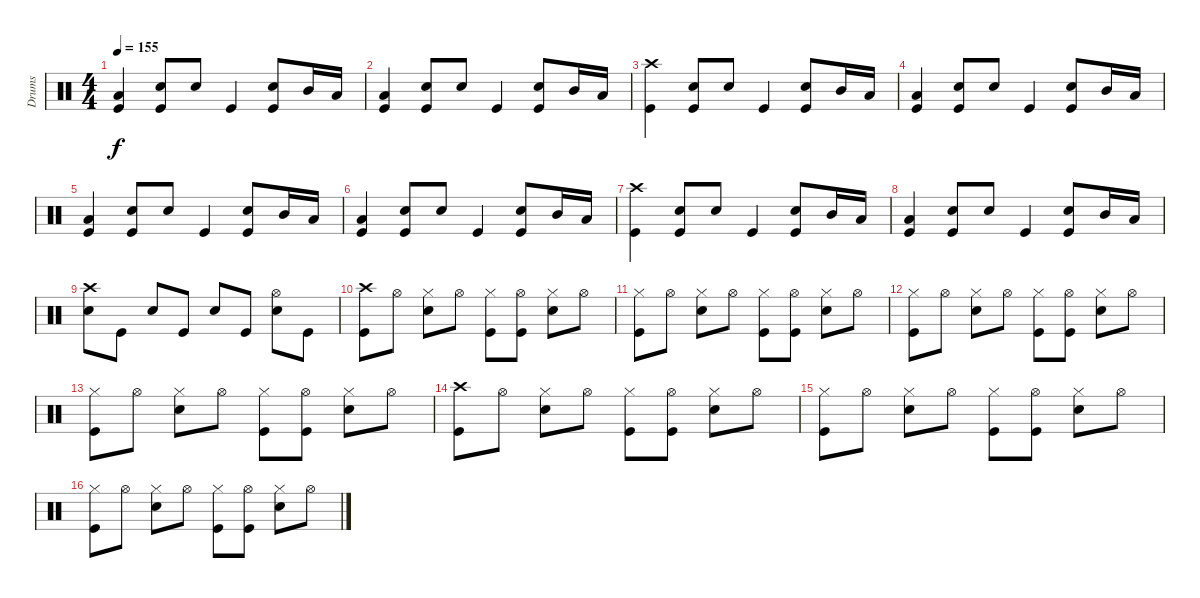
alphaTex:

\track ("Drums" "Drums") {instrument percussion}
\staff {score}
\articulation defaults
\ts (4 4)
\tempo 155
\clef neutral
\ks c
("Low Floor Tom (hit)" "Kick (hit)").4{dy f} ("Snare (hit) 2" "Kick (hit)").8 "Snare (hit) 2".8 "Kick (hit)".4 ("Snare (hit) 2" "Kick (hit)").8 "Mid Tom (hit)".16 "Low Tom (hit)".16 |
("Low Floor Tom (hit)" "Kick (hit)").4 ("Snare (hit) 2" "Kick (hit)").8 "Snare (hit) 2".8 "Kick (hit)".4 ("Snare (hit) 2" "Kick (hit)").8 "Mid Tom (hit)".16 "Low Tom (hit)".16 |
("Crash high (hit)" "Kick (hit)").4 ("Snare (hit) 2" "Kick (hit)").8 "Snare (hit) 2".8 "Kick (hit)".4 ("Snare (hit) 2" "Kick (hit)").8 "Mid Tom (hit)".16 "Low Tom (hit)".16 |
("Low Floor Tom (hit)" "Kick (hit)").4 ("Snare (hit) 2" "Kick (hit)").8 "Snare (hit) 2".8 "Kick (hit)".4 ("Snare (hit) 2" "Kick (hit)").8 "Mid Tom (hit)".16 "Low Tom (hit)".16 |
("Low Floor Tom (hit)" "Kick (hit)").4 ("Snare (hit) 2" "Kick (hit)").8 "Snare (hit) 2".8 "Kick (hit)".4 ("Snare (hit) 2" "Kick (hit)").8 "Mid Tom (hit)".16 "Low Tom (hit)".16 |
("Low Floor Tom (hit)" "Kick (hit)").4 ("Snare (hit) 2" "Kick (hit)").8 "Snare (hit) 2".8 "Kick (hit)".4 ("Snare (hit) 2" "Kick (hit)").8 "Mid Tom (hit)".16 "Low Tom (hit)".16 |
("Crash high (hit)" "Kick (hit)").4 ("Snare (hit) 2" "Kick (hit)").8 "Snare (hit) 2".8 "Kick (hit)".4 ("Snare (hit) 2" "Kick (hit)").8 "Mid Tom (hit)".16 "Low Tom (hit)".16 |
("Low Floor Tom (hit)" "Kick (hit)").4 ("Snare (hit) 2" "Kick (hit)").8 "Snare (hit) 2".8 "Kick (hit)".4 ("Snare (hit) 2" "Kick (hit)").8 "Mid Tom (hit)".16 "Low Tom (hit)".16 |
("Crash high (hit)" "Snare (hit) 2").8 "Kick (hit)".8 "Snare (hit) 2".8 "Kick (hit)".8 "Snare (hit) 2".8 "Kick (hit)".8 ("Hi-Hat (open)" "Snare (hit) 2").8 "Kick (hit)".8 |
("Crash high (hit)" "Kick (hit)").8 "Hi-Hat (open)".8 ("Hi-Hat (closed)" "Snare (hit) 2").8 "Hi-Hat (open)".8 ("Hi-Hat (closed)" "Kick (hit)").8 ("Hi-Hat (open)" "Kick (hit)").8 ("Hi-Hat (closed)" "Snare (hit) 2").8 "Hi-Hat (open)".8 |
("Hi-Hat (closed)" "Kick (hit)").8 "Hi-Hat (open)".8 ("Hi-Hat (closed)" "Snare (hit) 2").8 "Hi-Hat (open)".8 ("Hi-Hat (closed)" "Kick (hit)").8 ("Hi-Hat (open)" "Kick (hit)").8 ("Hi-Hat (closed)" "Snare (hit) 2").8 "Hi-Hat (open)".8 |
("Hi-Hat (closed)" "Kick (hit)").8 "Hi-Hat (open)".8 ("Hi-Hat (closed)" "Snare (hit) 2").8 "Hi-Hat (open)".8 ("Hi-Hat (closed)" "Kick (hit)").8 ("Hi-Hat (open)" "Kick (hit)").8 ("Hi-Hat (closed)" "Snare (hit) 2").8 "Hi-Hat (open)".8 |
("Hi-Hat (closed)" "Kick (hit)").8 "Hi-Hat (open)".8 ("Hi-Hat (closed)" "Snare (hit) 2").8 "Hi-Hat (open)".8 ("Hi-Hat (closed)" "Kick (hit)").8 ("Hi-Hat (open)" "Kick (hit)").8 ("Hi-Hat (closed)" "Snare (hit) 2").8 "Hi-Hat (open)".8 |
("Crash high (hit)" "Kick (hit)").8 "Hi-Hat (open)".8 ("Hi-Hat (closed)" "Snare (hit) 2").8 "Hi-Hat (open)".8 ("Hi-Hat (closed)" "Kick (hit)").8 ("Hi-Hat (open)" "Kick (hit)").8 ("Hi-Hat (closed)" "Snare (hit) 2").8 "Hi-Hat (open)".8 |
("Hi-Hat (closed)" "Kick (hit)").8 "Hi-Hat (open)".8 ("Hi-Hat (closed)" "Snare (hit) 2").8 "Hi-Hat (open)".8 ("Hi-Hat (closed)" "Kick (hit)").8 ("Hi-Hat (open)" "Kick (hit)").8 ("Hi-Hat (closed)" "Snare (hit) 2").8 "Hi-Hat (open)".8 |
("Hi-Hat (closed)" "Kick (hit)").8 "Hi-Hat (open)".8 ("Hi-Hat (closed)" "Snare (hit) 2").8 "Hi-Hat (open)".8 ("Hi-Hat (closed)" "Kick (hit)").8 ("Hi-Hat (open)" "Kick (hit)").8 ("Hi-Hat (closed)" "Snare (hit) 2").8 "Hi-Hat (open)".8
